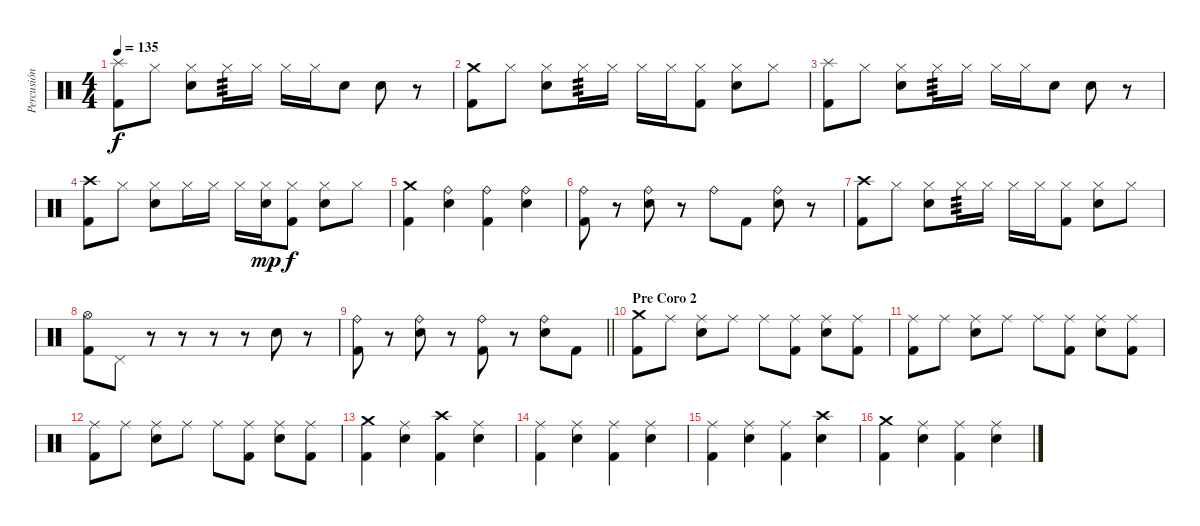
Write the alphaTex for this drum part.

\track ("Percusión" "Percusión") {instrument percussion}
\staff {score}
\articulation defaults
\ts (4 4)
\tempo 135
\clef neutral
\ks c
("Splash (hit)" "Kick (hit) 2").8{dy f} "Hi-Hat (closed)".8 ("Hi-Hat (closed)" "Electric Snare (hit)").8 "Hi-Hat (closed)".16{tp 3} "Hi-Hat (closed)".16 "Hi-Hat (closed)".16 "Hi-Hat (closed)".16 "Electric Snare (hit)".8 "Electric Snare (hit)".8 r.8 |
("Crash medium (hit)" "Kick (hit) 2").8 "Hi-Hat (closed)".8 ("Hi-Hat (closed)" "Electric Snare (hit)").8 "Hi-Hat (closed)".16{tp 3} "Hi-Hat (closed)".16 "Hi-Hat (closed)".16 "Hi-Hat (closed)".16 ("Hi-Hat (closed)" "Kick (hit) 2").8 ("Hi-Hat (closed)" "Electric Snare (hit)").8 "Hi-Hat (closed)".8 |
("Splash (hit)" "Kick (hit) 2").8 "Hi-Hat (closed)".8 ("Hi-Hat (closed)" "Electric Snare (hit)").8 "Hi-Hat (closed)".16{tp 3} "Hi-Hat (closed)".16 "Hi-Hat (closed)".16 "Hi-Hat (closed)".16 "Electric Snare (hit)".8 "Electric Snare (hit)".8 r.8 |
("Crash high (hit)" "Kick (hit) 2").8 "Hi-Hat (closed)".8 ("Hi-Hat (closed)" "Electric Snare (hit)").8 "Hi-Hat (closed)".16 "Hi-Hat (closed)".16 "Hi-Hat (closed)".16 ("Hi-Hat (closed)" "Electric Snare (hit)").16{dy mp} ("Hi-Hat (closed)" "Kick (hit) 2").8{dy f} ("Hi-Hat (closed)" "Electric Snare (hit)").8 "Hi-Hat (closed)".8 |
("Crash medium (hit)" "Kick (hit) 2").4 ("Ride (bell)" "Electric Snare (hit)").4 ("Ride (bell)" "Kick (hit) 2").4 ("Ride (bell)" "Electric Snare (hit)").4 |
("Ride (bell)" "Kick (hit) 2").8 r.8 ("Ride (bell)" "Electric Snare (hit)").8 r.8 "Ride (bell)".8 "Kick (hit) 2".8 ("Ride (bell)" "Electric Snare (hit)").8 r.8 |
("Crash high (hit)" "Kick (hit) 2").8 "Hi-Hat (closed)".8 ("Hi-Hat (closed)" "Electric Snare (hit)").8 "Hi-Hat (closed)".16{tp 3} "Hi-Hat (closed)".16 "Hi-Hat (closed)".16 "Hi-Hat (closed)".16 ("Hi-Hat (closed)" "Kick (hit) 2").8 ("Hi-Hat (closed)" "Electric Snare (hit)").8 "Hi-Hat (closed)".8 |
("Hi-Hat (open)" "Kick (hit) 2").8 "Pedal Hi-Hat (hit)".8 r.8 r.8 r.8 r.8 "Electric Snare (hit)".8 r.8 |
\barLineRight lightlight
("Ride (bell)" "Kick (hit) 2").8 r.8 ("Ride (bell)" "Electric Snare (hit)").8 r.8 ("Ride (bell)" "Kick (hit) 2").8 r.8 ("Ride (bell)" "Electric Snare (hit)").8 "Kick (hit) 2".8 |
\section ("" "Pre Coro 2")
("Crash medium (hit)" "Kick (hit) 2").8 "Ride (middle)".8 ("Ride (middle)" "Electric Snare (hit)").8 "Ride (middle)".8 "Ride (middle)".8 ("Ride (middle)" "Kick (hit) 2").8 ("Ride (middle)" "Electric Snare (hit)").8 ("Ride (middle)" "Kick (hit) 2").8 |
("Ride (middle)" "Kick (hit) 2").8 "Ride (middle)".8 ("Ride (middle)" "Electric Snare (hit)").8 "Ride (middle)".8 "Ride (middle)".8 ("Ride (middle)" "Kick (hit) 2").8 ("Ride (middle)" "Electric Snare (hit)").8 ("Ride (middle)" "Kick (hit) 2").8 |
("Ride (middle)" "Kick (hit) 2").8 "Ride (middle)".8 ("Ride (middle)" "Electric Snare (hit)").8 "Ride (middle)".8 "Ride (middle)".8 ("Ride (middle)" "Kick (hit) 2").8 ("Ride (middle)" "Electric Snare (hit)").8 ("Ride (middle)" "Kick (hit) 2").8 |
("Crash medium (hit)" "Kick (hit) 2").4 ("Ride (middle)" "Electric Snare (hit)").4 ("Crash high (hit)" "Kick (hit) 2").4 ("Ride (middle)" "Electric Snare (hit)").4 |
("Ride (middle)" "Kick (hit) 2").4 ("Ride (middle)" "Electric Snare (hit)").4 ("Ride (middle)" "Kick (hit) 2").4 ("Ride (middle)" "Electric Snare (hit)").4 |
("Ride (middle)" "Kick (hit) 2").4 ("Ride (middle)" "Electric Snare (hit)").4 ("Ride (middle)" "Kick (hit) 2").4 ("Crash high (hit)" "Electric Snare (hit)").4 |
("Crash medium (hit)" "Kick (hit) 2").4 ("Ride (middle)" "Electric Snare (hit)").4 ("Ride (middle)" "Kick (hit) 2").4 ("Ride (middle)" "Electric Snare (hit)").4
